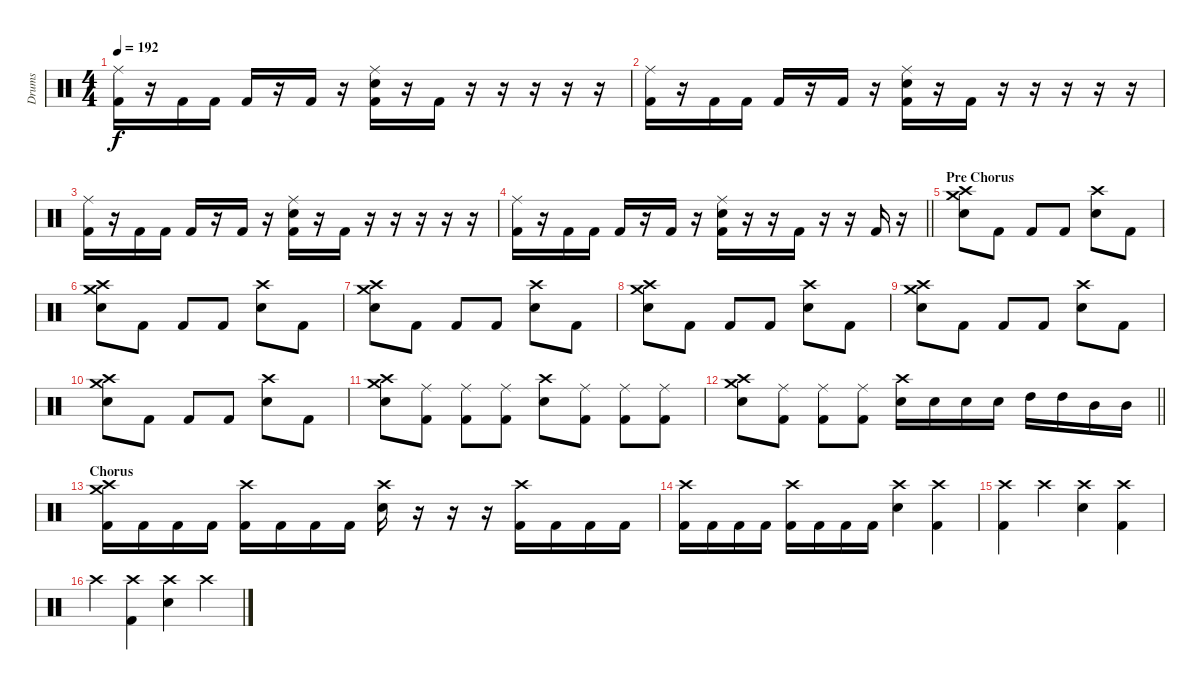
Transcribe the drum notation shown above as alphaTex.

\track ("Drums" "Drums") {instrument percussion}
\staff {score}
\articulation defaults
\ts (4 4)
\tempo 192
\clef neutral
\ks c
("Ride (middle)" "Kick (hit) 2").16{dy f} r.16 "Kick (hit) 2".16 "Kick (hit) 2".16 "Kick (hit) 2".16 r.16 "Kick (hit) 2".16 r.16 ("Ride (middle)" "Snare (hit) 2" "Kick (hit) 2").16 r.16 "Kick (hit) 2".16 r.16 r.16 r.16 r.16 r.16 |
("Ride (middle)" "Kick (hit) 2").16 r.16 "Kick (hit) 2".16 "Kick (hit) 2".16 "Kick (hit) 2".16 r.16 "Kick (hit) 2".16 r.16 ("Ride (middle)" "Snare (hit) 2" "Kick (hit) 2").16 r.16 "Kick (hit) 2".16 r.16 r.16 r.16 r.16 r.16 |
("Ride (middle)" "Kick (hit) 2").16 r.16 "Kick (hit) 2".16 "Kick (hit) 2".16 "Kick (hit) 2".16 r.16 "Kick (hit) 2".16 r.16 ("Ride (middle)" "Snare (hit) 2" "Kick (hit) 2").16 r.16 "Kick (hit) 2".16 r.16 r.16 r.16 r.16 r.16 |
\barLineRight lightlight
("Ride (middle)" "Kick (hit) 2").16 r.16 "Kick (hit) 2".16 "Kick (hit) 2".16 "Kick (hit) 2".16 r.16 "Kick (hit) 2".16 r.16 ("Ride (middle)" "Snare (hit) 2" "Kick (hit) 2").16 r.16 r.16 "Kick (hit) 2".16 r.16 r.16 "Kick (hit) 2".16 r.16 |
\section ("" "Pre Chorus")
("Crash high (hit)" "Crash medium (hit)" "Snare (hit) 2").8 "Kick (hit) 2".8 "Kick (hit) 2".8 "Kick (hit) 2".8 ("Crash high (hit)" "Snare (hit) 2").8 "Kick (hit) 2".8 |
("Crash high (hit)" "Crash medium (hit)" "Snare (hit) 2").8 "Kick (hit) 2".8 "Kick (hit) 2".8 "Kick (hit) 2".8 ("Crash high (hit)" "Snare (hit) 2").8 "Kick (hit) 2".8 |
("Crash high (hit)" "Crash medium (hit)" "Snare (hit) 2").8 "Kick (hit) 2".8 "Kick (hit) 2".8 "Kick (hit) 2".8 ("Crash high (hit)" "Snare (hit) 2").8 "Kick (hit) 2".8 |
("Crash high (hit)" "Crash medium (hit)" "Snare (hit) 2").8 "Kick (hit) 2".8 "Kick (hit) 2".8 "Kick (hit) 2".8 ("Crash high (hit)" "Snare (hit) 2").8 "Kick (hit) 2".8 |
("Crash high (hit)" "Crash medium (hit)" "Snare (hit) 2").8 "Kick (hit) 2".8 "Kick (hit) 2".8 "Kick (hit) 2".8 ("Crash high (hit)" "Snare (hit) 2").8 "Kick (hit) 2".8 |
("Crash high (hit)" "Crash medium (hit)" "Snare (hit) 2").8 "Kick (hit) 2".8 "Kick (hit) 2".8 "Kick (hit) 2".8 ("Crash high (hit)" "Snare (hit) 2").8 "Kick (hit) 2".8 |
("Crash high (hit)" "Crash medium (hit)" "Snare (hit) 2").8 ("Ride (middle)" "Kick (hit) 2").8 ("Ride (middle)" "Kick (hit) 2").8 ("Ride (middle)" "Kick (hit) 2").8 ("Crash high (hit)" "Snare (hit) 2").8 ("Ride (middle)" "Kick (hit) 2").8 ("Ride (middle)" "Kick (hit) 2").8 ("Ride (middle)" "Kick (hit) 2").8 |
\barLineRight lightlight
("Crash high (hit)" "Crash medium (hit)" "Snare (hit) 2").8 ("Ride (middle)" "Kick (hit) 2").8 ("Ride (middle)" "Kick (hit) 2").8 ("Ride (middle)" "Kick (hit) 2").8 ("Crash high (hit)" "Snare (hit) 2").16 "Snare (hit) 2".16 "Snare (hit) 2".16 "Snare (hit) 2".16 "High Tom (hit)".16 "High Tom (hit)".16 "Mid Tom (hit)".16 "Mid Tom (hit)".16 |
\section ("" "Chorus")
("Crash high (hit)" "Crash medium (hit)" "Kick (hit) 2").16 "Kick (hit) 2".16 "Kick (hit) 2".16 "Kick (hit) 2".16 ("Crash high (hit)" "Kick (hit) 2").16 "Kick (hit) 2".16 "Kick (hit) 2".16 "Kick (hit) 2".16 ("Crash high (hit)" "Snare (hit) 2").16 r.16 r.16 r.16 ("Crash high (hit)" "Kick (hit) 2").16 "Kick (hit) 2".16 "Kick (hit) 2".16 "Kick (hit) 2".16 |
("Crash high (hit)" "Kick (hit) 2").16 "Kick (hit) 2".16 "Kick (hit) 2".16 "Kick (hit) 2".16 ("Crash high (hit)" "Kick (hit) 2").16 "Kick (hit) 2".16 "Kick (hit) 2".16 "Kick (hit) 2".16 ("Crash high (hit)" "Snare (hit) 2").4 ("Crash high (hit)" "Kick (hit) 2").4 |
("Crash high (hit)" "Kick (hit) 2").4 "Crash high (hit)".4 ("Crash high (hit)" "Snare (hit) 2").4 ("Crash high (hit)" "Kick (hit) 2").4 |
"Crash high (hit)".4 ("Crash high (hit)" "Kick (hit) 2").4 ("Crash high (hit)" "Snare (hit) 2").4 "Crash high (hit)".4
